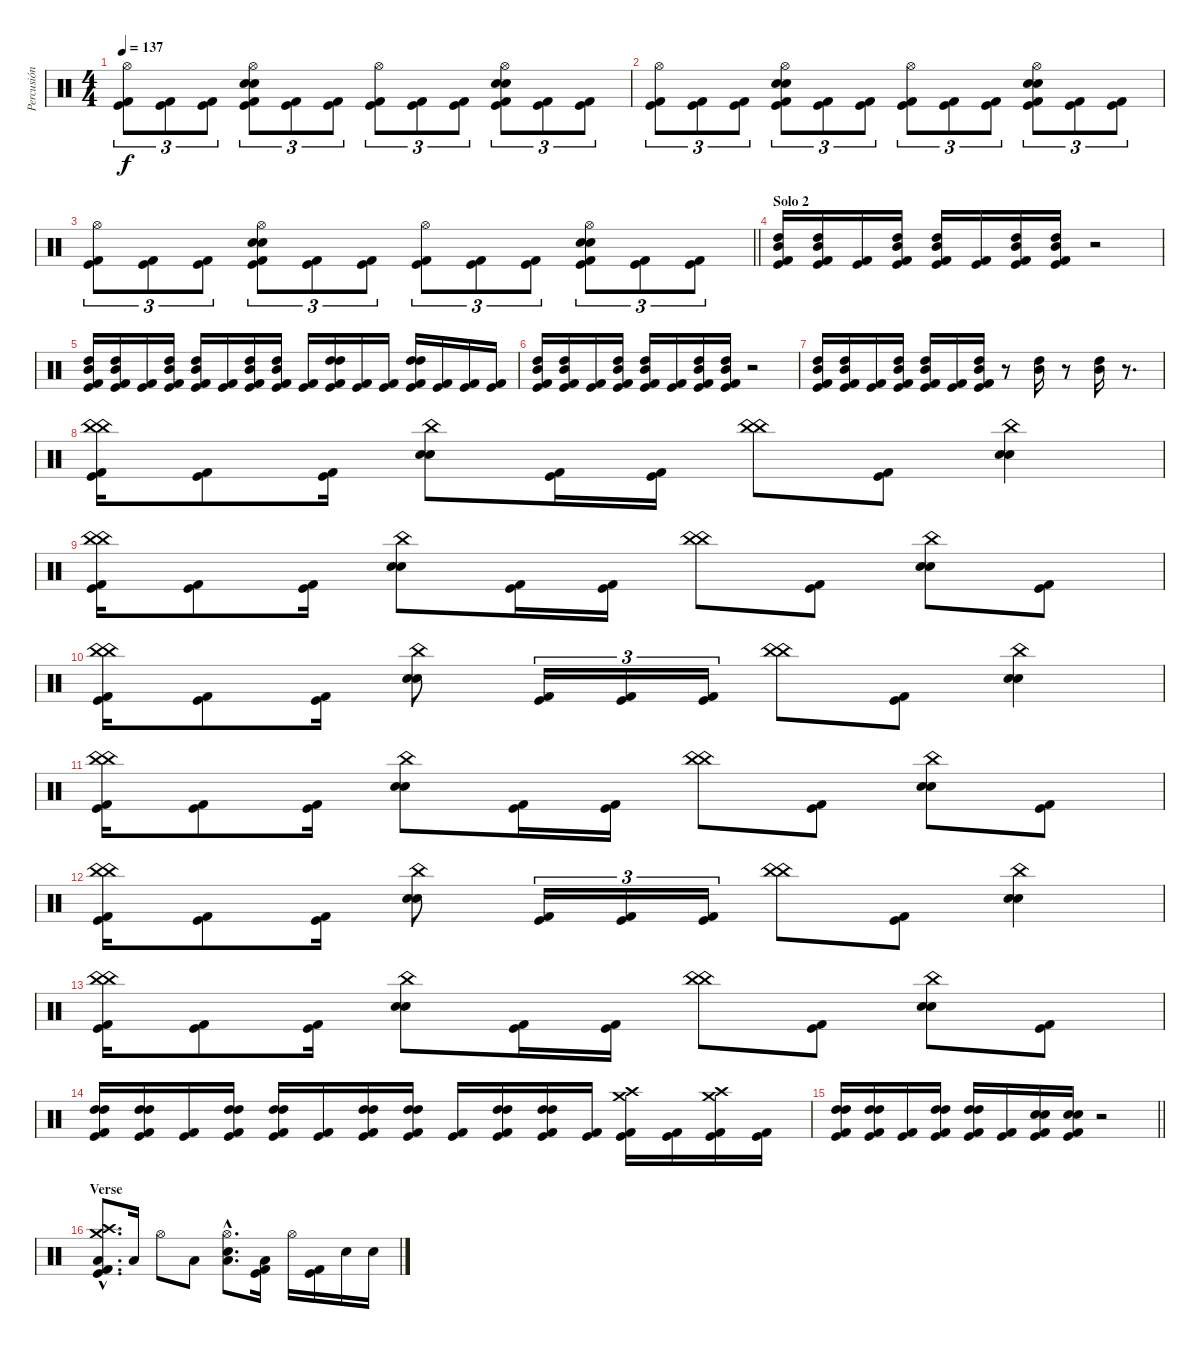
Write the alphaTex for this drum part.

\track ("Percusión" "Percusión") {instrument percussion}
\staff {score}
\articulation defaults
\ts (4 4)
\tempo 137
\clef neutral
\ks c
("Hi-Hat (open)" "Kick (hit)" "Kick (hit) 2").8{tu (3 2) dy f} ("Kick (hit)" "Kick (hit) 2").8{tu (3 2)} ("Kick (hit)" "Kick (hit) 2").8{tu (3 2)} ("Hi-Hat (open)" "Electric Snare (hit)" "Electric Snare (hit)" "Kick (hit)" "Kick (hit) 2").8{tu (3 2)} ("Kick (hit)" "Kick (hit) 2").8{tu (3 2)} ("Kick (hit)" "Kick (hit) 2").8{tu (3 2)} ("Hi-Hat (open)" "Kick (hit)" "Kick (hit) 2").8{tu (3 2)} ("Kick (hit)" "Kick (hit) 2").8{tu (3 2)} ("Kick (hit)" "Kick (hit) 2").8{tu (3 2)} ("Hi-Hat (open)" "Electric Snare (hit)" "Electric Snare (hit)" "Kick (hit)" "Kick (hit) 2").8{tu (3 2)} ("Kick (hit)" "Kick (hit) 2").8{tu (3 2)} ("Kick (hit)" "Kick (hit) 2").8{tu (3 2)} |
("Hi-Hat (open)" "Kick (hit)" "Kick (hit) 2").8{tu (3 2)} ("Kick (hit)" "Kick (hit) 2").8{tu (3 2)} ("Kick (hit)" "Kick (hit) 2").8{tu (3 2)} ("Hi-Hat (open)" "Electric Snare (hit)" "Electric Snare (hit)" "Kick (hit)" "Kick (hit) 2").8{tu (3 2)} ("Kick (hit)" "Kick (hit) 2").8{tu (3 2)} ("Kick (hit)" "Kick (hit) 2").8{tu (3 2)} ("Hi-Hat (open)" "Kick (hit)" "Kick (hit) 2").8{tu (3 2)} ("Kick (hit)" "Kick (hit) 2").8{tu (3 2)} ("Kick (hit)" "Kick (hit) 2").8{tu (3 2)} ("Hi-Hat (open)" "Electric Snare (hit)" "Electric Snare (hit)" "Kick (hit)" "Kick (hit) 2").8{tu (3 2)} ("Kick (hit)" "Kick (hit) 2").8{tu (3 2)} ("Kick (hit)" "Kick (hit) 2").8{tu (3 2)} |
\barLineRight lightlight
("Hi-Hat (open)" "Kick (hit)" "Kick (hit) 2").8{tu (3 2)} ("Kick (hit)" "Kick (hit) 2").8{tu (3 2)} ("Kick (hit)" "Kick (hit) 2").8{tu (3 2)} ("Hi-Hat (open)" "Electric Snare (hit)" "Electric Snare (hit)" "Kick (hit)" "Kick (hit) 2").8{tu (3 2)} ("Kick (hit)" "Kick (hit) 2").8{tu (3 2)} ("Kick (hit)" "Kick (hit) 2").8{tu (3 2)} ("Hi-Hat (open)" "Kick (hit)" "Kick (hit) 2").8{tu (3 2)} ("Kick (hit)" "Kick (hit) 2").8{tu (3 2)} ("Kick (hit)" "Kick (hit) 2").8{tu (3 2)} ("Hi-Hat (open)" "Electric Snare (hit)" "Electric Snare (hit)" "Kick (hit)" "Kick (hit) 2").8{tu (3 2)} ("Kick (hit)" "Kick (hit) 2").8{tu (3 2)} ("Kick (hit)" "Kick (hit) 2").8{tu (3 2)} |
\section ("" "Solo 2")
("High Tom (hit)" "Mid Tom (hit)" "Kick (hit)" "Kick (hit) 2").16 ("High Tom (hit)" "Mid Tom (hit)" "Kick (hit)" "Kick (hit) 2").16 ("Kick (hit)" "Kick (hit) 2").16 ("High Tom (hit)" "Mid Tom (hit)" "Kick (hit)" "Kick (hit) 2").16 ("High Tom (hit)" "Mid Tom (hit)" "Kick (hit)" "Kick (hit) 2").16 ("Kick (hit)" "Kick (hit) 2").16 ("High Tom (hit)" "Mid Tom (hit)" "Kick (hit)" "Kick (hit) 2").16 ("High Tom (hit)" "Mid Tom (hit)" "Kick (hit)" "Kick (hit) 2").16 r.2 |
("High Tom (hit)" "Mid Tom (hit)" "Kick (hit)" "Kick (hit) 2").16 ("High Tom (hit)" "Mid Tom (hit)" "Kick (hit)" "Kick (hit) 2").16 ("Kick (hit)" "Kick (hit) 2").16 ("High Tom (hit)" "Mid Tom (hit)" "Kick (hit)" "Kick (hit) 2").16 ("High Tom (hit)" "Mid Tom (hit)" "Kick (hit)" "Kick (hit) 2").16 ("Kick (hit)" "Kick (hit) 2").16 ("High Tom (hit)" "Mid Tom (hit)" "Kick (hit)" "Kick (hit) 2").16 ("High Tom (hit)" "Mid Tom (hit)" "Kick (hit)" "Kick (hit) 2").16 ("Kick (hit)" "Kick (hit) 2").16 ("High Tom (hit)" "High Tom (hit)" "Kick (hit)" "Kick (hit) 2").16 ("Kick (hit)" "Kick (hit) 2").16 ("Kick (hit)" "Kick (hit) 2").16 ("High Tom (hit)" "High Tom (hit)" "Kick (hit)" "Kick (hit) 2").16 ("Kick (hit)" "Kick (hit) 2").16 ("Kick (hit)" "Kick (hit) 2").16 ("Kick (hit)" "Kick (hit) 2").16 |
("High Tom (hit)" "Mid Tom (hit)" "Kick (hit)" "Kick (hit) 2").16 ("High Tom (hit)" "Mid Tom (hit)" "Kick (hit)" "Kick (hit) 2").16 ("Kick (hit)" "Kick (hit) 2").16 ("High Tom (hit)" "Mid Tom (hit)" "Kick (hit)" "Kick (hit) 2").16 ("High Tom (hit)" "Mid Tom (hit)" "Kick (hit)" "Kick (hit) 2").16 ("Kick (hit)" "Kick (hit) 2").16 ("High Tom (hit)" "Mid Tom (hit)" "Kick (hit)" "Kick (hit) 2").16 ("High Tom (hit)" "Mid Tom (hit)" "Kick (hit)" "Kick (hit) 2").16 r.2 |
("High Tom (hit)" "Mid Tom (hit)" "Kick (hit) 2" "Kick (hit)").16 ("High Tom (hit)" "Mid Tom (hit)" "Kick (hit) 2" "Kick (hit)").16 ("Kick (hit) 2" "Kick (hit)").16 ("High Tom (hit)" "Mid Tom (hit)" "Kick (hit) 2" "Kick (hit)").16 ("High Tom (hit)" "Mid Tom (hit)" "Kick (hit) 2" "Kick (hit)").16 ("Kick (hit) 2" "Kick (hit)").16 ("High Tom (hit)" "Mid Tom (hit)" "Kick (hit) 2" "Kick (hit)").16 r.8 ("High Tom (hit)" "Mid Tom (hit)").16 r.8 ("Mid Tom (hit)" "High Tom (hit)").16 r.8{d} |
("China (hit)" "China (hit)" "Kick (hit)" "Kick (hit) 2").16 ("Kick (hit)" "Kick (hit) 2").8 ("Kick (hit)" "Kick (hit) 2").16 ("China (hit)" "Electric Snare (hit)" "Electric Snare (hit)").8 ("Kick (hit)" "Kick (hit) 2").16 ("Kick (hit)" "Kick (hit) 2").16 ("China (hit)" "China (hit)").8 ("Kick (hit)" "Kick (hit) 2").8 ("China (hit)" "Electric Snare (hit)" "Electric Snare (hit)").4 |
("China (hit)" "China (hit)" "Kick (hit)" "Kick (hit) 2").16 ("Kick (hit)" "Kick (hit) 2").8 ("Kick (hit)" "Kick (hit) 2").16 ("China (hit)" "Electric Snare (hit)" "Electric Snare (hit)").8 ("Kick (hit)" "Kick (hit) 2").16 ("Kick (hit)" "Kick (hit) 2").16 ("China (hit)" "China (hit)").8 ("Kick (hit)" "Kick (hit) 2").8 ("China (hit)" "Electric Snare (hit)" "Electric Snare (hit)").8 ("Kick (hit)" "Kick (hit) 2").8 |
("China (hit)" "China (hit)" "Kick (hit)" "Kick (hit) 2").16 ("Kick (hit)" "Kick (hit) 2").8 ("Kick (hit)" "Kick (hit) 2").16 ("China (hit)" "Electric Snare (hit)" "Electric Snare (hit)").8 ("Kick (hit)" "Kick (hit) 2").16{tu (3 2)} ("Kick (hit)" "Kick (hit) 2").16{tu (3 2)} ("Kick (hit)" "Kick (hit) 2").16{tu (3 2)} ("China (hit)" "China (hit)").8 ("Kick (hit)" "Kick (hit) 2").8 ("China (hit)" "Electric Snare (hit)" "Electric Snare (hit)").4 |
("China (hit)" "China (hit)" "Kick (hit)" "Kick (hit) 2").16 ("Kick (hit)" "Kick (hit) 2").8 ("Kick (hit)" "Kick (hit) 2").16 ("China (hit)" "Electric Snare (hit)" "Electric Snare (hit)").8 ("Kick (hit)" "Kick (hit) 2").16 ("Kick (hit)" "Kick (hit) 2").16 ("China (hit)" "China (hit)").8 ("Kick (hit)" "Kick (hit) 2").8 ("China (hit)" "Electric Snare (hit)" "Electric Snare (hit)").8 ("Kick (hit)" "Kick (hit) 2").8 |
("China (hit)" "China (hit)" "Kick (hit)" "Kick (hit) 2").16 ("Kick (hit)" "Kick (hit) 2").8 ("Kick (hit)" "Kick (hit) 2").16 ("China (hit)" "Electric Snare (hit)" "Electric Snare (hit)").8 ("Kick (hit)" "Kick (hit) 2").16{tu (3 2)} ("Kick (hit)" "Kick (hit) 2").16{tu (3 2)} ("Kick (hit)" "Kick (hit) 2").16{tu (3 2)} ("China (hit)" "China (hit)").8 ("Kick (hit)" "Kick (hit) 2").8 ("China (hit)" "Electric Snare (hit)" "Electric Snare (hit)").4 |
("China (hit)" "China (hit)" "Kick (hit)" "Kick (hit) 2").16 ("Kick (hit)" "Kick (hit) 2").8 ("Kick (hit)" "Kick (hit) 2").16 ("China (hit)" "Electric Snare (hit)" "Electric Snare (hit)").8 ("Kick (hit)" "Kick (hit) 2").16 ("Kick (hit)" "Kick (hit) 2").16 ("China (hit)" "China (hit)").8 ("Kick (hit)" "Kick (hit) 2").8 ("China (hit)" "Electric Snare (hit)" "Electric Snare (hit)").8 ("Kick (hit)" "Kick (hit) 2").8 |
("High Tom (hit)" "High Tom (hit)" "Kick (hit)" "Kick (hit) 2").16 ("High Tom (hit)" "High Tom (hit)" "Kick (hit)" "Kick (hit) 2").16 ("Kick (hit)" "Kick (hit) 2").16 ("High Tom (hit)" "High Tom (hit)" "Kick (hit)" "Kick (hit) 2").16 ("High Tom (hit)" "High Tom (hit)" "Kick (hit)" "Kick (hit) 2").16 ("Kick (hit)" "Kick (hit) 2").16 ("High Tom (hit)" "High Tom (hit)" "Kick (hit)" "Kick (hit) 2").16 ("High Tom (hit)" "High Tom (hit)" "Kick (hit)" "Kick (hit) 2").16 ("Kick (hit)" "Kick (hit) 2").16 ("High Tom (hit)" "High Tom (hit)" "Kick (hit)" "Kick (hit) 2").16 ("High Tom (hit)" "High Tom (hit)" "Kick (hit)" "Kick (hit) 2").16 ("Kick (hit)" "Kick (hit) 2").16 ("Crash medium (hit)" "Crash high (hit)" "Kick (hit)" "Kick (hit) 2").16 ("Kick (hit)" "Kick (hit) 2").16 ("Crash medium (hit)" "Crash high (hit)" "Kick (hit)" "Kick (hit) 2").16 ("Kick (hit)" "Kick (hit) 2").16 |
\barLineRight lightlight
("High Tom (hit)" "High Tom (hit)" "Kick (hit)" "Kick (hit) 2").16 ("High Tom (hit)" "High Tom (hit)" "Kick (hit)" "Kick (hit) 2").16 ("Kick (hit)" "Kick (hit) 2").16 ("High Tom (hit)" "High Tom (hit)" "Kick (hit)" "Kick (hit) 2").16 ("High Tom (hit)" "High Tom (hit)" "Kick (hit)" "Kick (hit) 2").16 ("Kick (hit)" "Kick (hit) 2").16 ("Electric Snare (hit)" "Electric Snare (hit)" "Kick (hit)" "Kick (hit) 2").16 ("Electric Snare (hit)" "Electric Snare (hit)" "Kick (hit)" "Kick (hit) 2").16 r.2 |
\section ("" "Verse")
("Crash medium (hit)"{hac} "Crash high (hit)"{hac} "Low Floor Tom (hit)"{hac} "Kick (hit) 2"{hac} "Kick (hit)"{hac}).8{d} "Low Floor Tom (hit)".16 "Hi-Hat (open)".8 "Low Floor Tom (hit)".8 ("Hi-Hat (open)"{hac} "Electric Snare (hit)"{hac} "Low Floor Tom (hit)"{hac}).8{d} ("Low Floor Tom (hit)" "Kick (hit)" "Kick (hit) 2").16 "Hi-Hat (open)".16 ("Kick (hit) 2" "Kick (hit)").16 "Electric Snare (hit)".16 "Electric Snare (hit)".16
